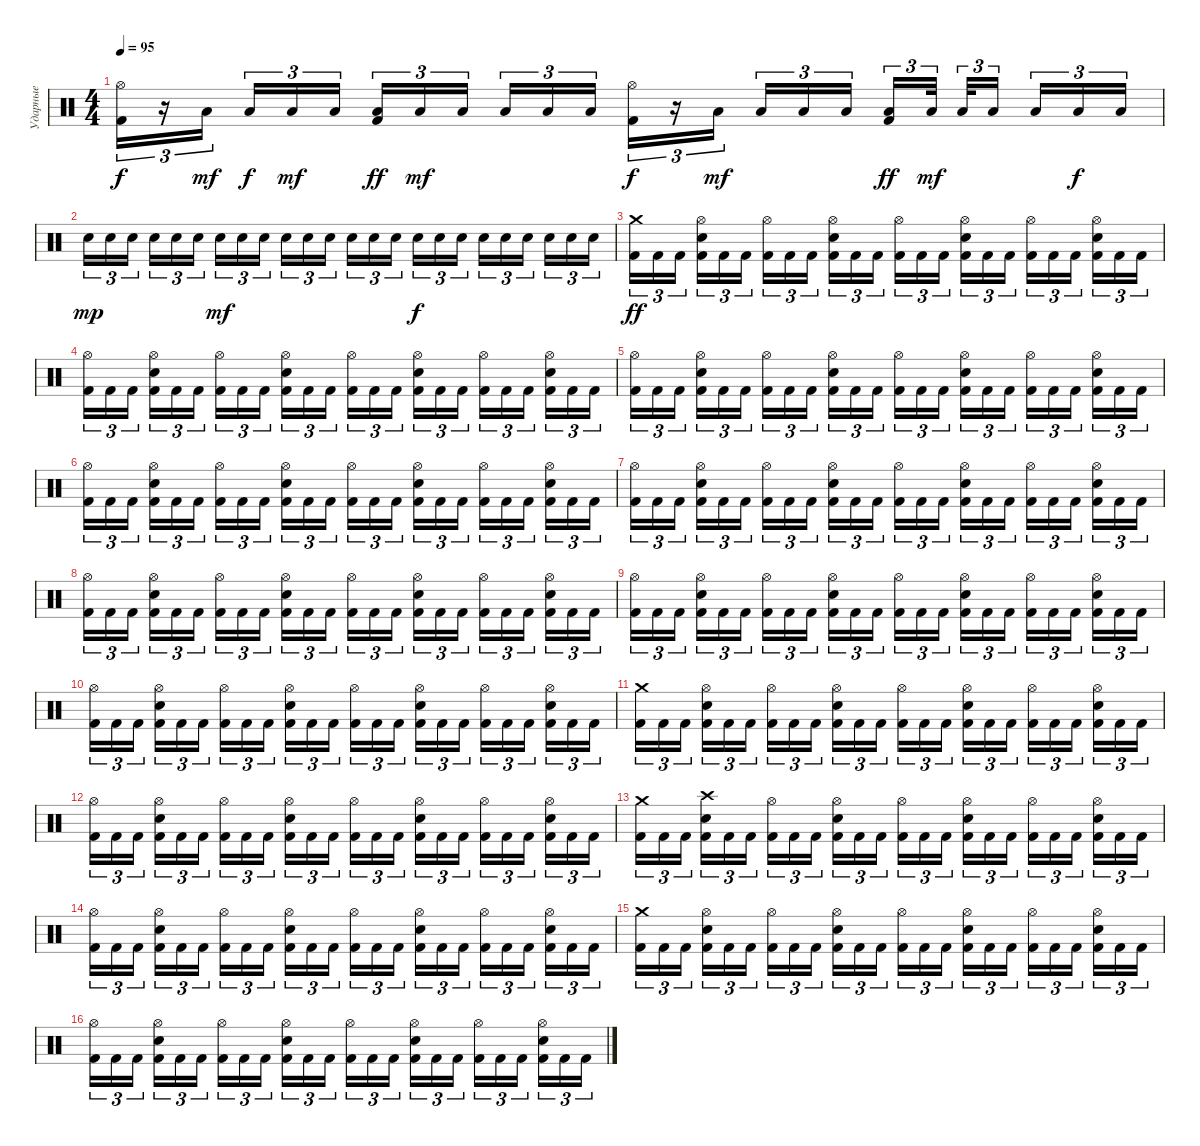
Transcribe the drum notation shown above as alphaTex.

\track ("Ударные" "Ударные") {instrument percussion}
\staff
\articulation defaults
\ts (4 4)
\tempo 95
\clef neutral
\ks c
("Hi-Hat (open)" "Kick (hit) 2").16{tu (3 2) dy f} r.16{tu (3 2)} "Low Floor Tom (hit)".16{tu (3 2) dy mf beam splitsecondary} "Low Floor Tom (hit)".16{tu (3 2) dy f} "Low Floor Tom (hit)".16{tu (3 2) dy mf} "Low Floor Tom (hit)".16{tu (3 2)} ("Kick (hit) 2" "Low Floor Tom (hit)").16{tu (3 2) dy ff} "Low Floor Tom (hit)".16{tu (3 2) dy mf} "Low Floor Tom (hit)".16{tu (3 2) beam splitsecondary} "Low Floor Tom (hit)".16{tu (3 2)} "Low Floor Tom (hit)".16{tu (3 2)} "Low Floor Tom (hit)".16{tu (3 2)} ("Hi-Hat (open)" "Kick (hit) 2").16{tu (3 2) dy f} r.16{tu (3 2)} "Low Floor Tom (hit)".16{tu (3 2) dy mf beam splitsecondary} "Low Floor Tom (hit)".16{tu (3 2)} "Low Floor Tom (hit)".16{tu (3 2)} "Low Floor Tom (hit)".16{tu (3 2)} ("Kick (hit) 2" "Low Floor Tom (hit)").16{tu (3 2) dy ff} "Low Floor Tom (hit)".32{tu (3 2) dy mf beam splitsecondary} "Low Floor Tom (hit)".32{tu (3 2)} "Low Floor Tom (hit)".16{tu (3 2) beam splitsecondary} "Low Floor Tom (hit)".16{tu (3 2)} "Low Floor Tom (hit)".16{tu (3 2) dy f} "Low Floor Tom (hit)".16{tu (3 2)} |
"Electric Snare (hit)".16{tu (3 2) dy mp} "Electric Snare (hit)".16{tu (3 2)} "Electric Snare (hit)".16{tu (3 2) beam splitsecondary} "Electric Snare (hit)".16{tu (3 2)} "Electric Snare (hit)".16{tu (3 2)} "Electric Snare (hit)".16{tu (3 2)} "Electric Snare (hit)".16{tu (3 2) dy mf} "Electric Snare (hit)".16{tu (3 2)} "Electric Snare (hit)".16{tu (3 2) beam splitsecondary} "Electric Snare (hit)".16{tu (3 2)} "Electric Snare (hit)".16{tu (3 2)} "Electric Snare (hit)".16{tu (3 2)} "Electric Snare (hit)".16{tu (3 2)} "Electric Snare (hit)".16{tu (3 2)} "Electric Snare (hit)".16{tu (3 2) beam splitsecondary} "Electric Snare (hit)".16{tu (3 2) dy f} "Electric Snare (hit)".16{tu (3 2)} "Electric Snare (hit)".16{tu (3 2)} "Electric Snare (hit)".16{tu (3 2)} "Electric Snare (hit)".16{tu (3 2)} "Electric Snare (hit)".16{tu (3 2) beam splitsecondary} "Electric Snare (hit)".16{tu (3 2)} "Electric Snare (hit)".16{tu (3 2)} "Electric Snare (hit)".16{tu (3 2)} |
("Crash medium (hit)" "Kick (hit) 2").16{tu (3 2) dy ff} "Kick (hit) 2".16{tu (3 2)} "Kick (hit) 2".16{tu (3 2) beam splitsecondary} ("Hi-Hat (open)" "Electric Snare (hit)" "Kick (hit) 2").16{tu (3 2)} "Kick (hit) 2".16{tu (3 2)} "Kick (hit) 2".16{tu (3 2)} ("Hi-Hat (open)" "Kick (hit) 2").16{tu (3 2)} "Kick (hit) 2".16{tu (3 2)} "Kick (hit) 2".16{tu (3 2) beam splitsecondary} ("Hi-Hat (open)" "Electric Snare (hit)" "Kick (hit) 2").16{tu (3 2)} "Kick (hit) 2".16{tu (3 2)} "Kick (hit) 2".16{tu (3 2)} ("Hi-Hat (open)" "Kick (hit) 2").16{tu (3 2)} "Kick (hit) 2".16{tu (3 2)} "Kick (hit) 2".16{tu (3 2) beam splitsecondary} ("Hi-Hat (open)" "Electric Snare (hit)" "Kick (hit) 2").16{tu (3 2)} "Kick (hit) 2".16{tu (3 2)} "Kick (hit) 2".16{tu (3 2)} ("Hi-Hat (open)" "Kick (hit) 2").16{tu (3 2)} "Kick (hit) 2".16{tu (3 2)} "Kick (hit) 2".16{tu (3 2) beam splitsecondary} ("Hi-Hat (open)" "Electric Snare (hit)" "Kick (hit) 2").16{tu (3 2)} "Kick (hit) 2".16{tu (3 2)} "Kick (hit) 2".16{tu (3 2)} |
("Hi-Hat (open)" "Kick (hit) 2").16{tu (3 2)} "Kick (hit) 2".16{tu (3 2)} "Kick (hit) 2".16{tu (3 2) beam splitsecondary} ("Hi-Hat (open)" "Electric Snare (hit)" "Kick (hit) 2").16{tu (3 2)} "Kick (hit) 2".16{tu (3 2)} "Kick (hit) 2".16{tu (3 2)} ("Hi-Hat (open)" "Kick (hit) 2").16{tu (3 2)} "Kick (hit) 2".16{tu (3 2)} "Kick (hit) 2".16{tu (3 2) beam splitsecondary} ("Hi-Hat (open)" "Electric Snare (hit)" "Kick (hit) 2").16{tu (3 2)} "Kick (hit) 2".16{tu (3 2)} "Kick (hit) 2".16{tu (3 2)} ("Hi-Hat (open)" "Kick (hit) 2").16{tu (3 2)} "Kick (hit) 2".16{tu (3 2)} "Kick (hit) 2".16{tu (3 2) beam splitsecondary} ("Hi-Hat (open)" "Electric Snare (hit)" "Kick (hit) 2").16{tu (3 2)} "Kick (hit) 2".16{tu (3 2)} "Kick (hit) 2".16{tu (3 2)} ("Hi-Hat (open)" "Kick (hit) 2").16{tu (3 2)} "Kick (hit) 2".16{tu (3 2)} "Kick (hit) 2".16{tu (3 2) beam splitsecondary} ("Hi-Hat (open)" "Electric Snare (hit)" "Kick (hit) 2").16{tu (3 2)} "Kick (hit) 2".16{tu (3 2)} "Kick (hit) 2".16{tu (3 2)} |
("Hi-Hat (open)" "Kick (hit) 2").16{tu (3 2)} "Kick (hit) 2".16{tu (3 2)} "Kick (hit) 2".16{tu (3 2) beam splitsecondary} ("Hi-Hat (open)" "Electric Snare (hit)" "Kick (hit) 2").16{tu (3 2)} "Kick (hit) 2".16{tu (3 2)} "Kick (hit) 2".16{tu (3 2)} ("Hi-Hat (open)" "Kick (hit) 2").16{tu (3 2)} "Kick (hit) 2".16{tu (3 2)} "Kick (hit) 2".16{tu (3 2) beam splitsecondary} ("Hi-Hat (open)" "Electric Snare (hit)" "Kick (hit) 2").16{tu (3 2)} "Kick (hit) 2".16{tu (3 2)} "Kick (hit) 2".16{tu (3 2)} ("Hi-Hat (open)" "Kick (hit) 2").16{tu (3 2)} "Kick (hit) 2".16{tu (3 2)} "Kick (hit) 2".16{tu (3 2) beam splitsecondary} ("Hi-Hat (open)" "Electric Snare (hit)" "Kick (hit) 2").16{tu (3 2)} "Kick (hit) 2".16{tu (3 2)} "Kick (hit) 2".16{tu (3 2)} ("Hi-Hat (open)" "Kick (hit) 2").16{tu (3 2)} "Kick (hit) 2".16{tu (3 2)} "Kick (hit) 2".16{tu (3 2) beam splitsecondary} ("Hi-Hat (open)" "Electric Snare (hit)" "Kick (hit) 2").16{tu (3 2)} "Kick (hit) 2".16{tu (3 2)} "Kick (hit) 2".16{tu (3 2)} |
("Hi-Hat (open)" "Kick (hit) 2").16{tu (3 2)} "Kick (hit) 2".16{tu (3 2)} "Kick (hit) 2".16{tu (3 2) beam splitsecondary} ("Hi-Hat (open)" "Electric Snare (hit)" "Kick (hit) 2").16{tu (3 2)} "Kick (hit) 2".16{tu (3 2)} "Kick (hit) 2".16{tu (3 2)} ("Hi-Hat (open)" "Kick (hit) 2").16{tu (3 2)} "Kick (hit) 2".16{tu (3 2)} "Kick (hit) 2".16{tu (3 2) beam splitsecondary} ("Hi-Hat (open)" "Electric Snare (hit)" "Kick (hit) 2").16{tu (3 2)} "Kick (hit) 2".16{tu (3 2)} "Kick (hit) 2".16{tu (3 2)} ("Hi-Hat (open)" "Kick (hit) 2").16{tu (3 2)} "Kick (hit) 2".16{tu (3 2)} "Kick (hit) 2".16{tu (3 2) beam splitsecondary} ("Hi-Hat (open)" "Electric Snare (hit)" "Kick (hit) 2").16{tu (3 2)} "Kick (hit) 2".16{tu (3 2)} "Kick (hit) 2".16{tu (3 2)} ("Hi-Hat (open)" "Kick (hit) 2").16{tu (3 2)} "Kick (hit) 2".16{tu (3 2)} "Kick (hit) 2".16{tu (3 2) beam splitsecondary} ("Hi-Hat (open)" "Electric Snare (hit)" "Kick (hit) 2").16{tu (3 2)} "Kick (hit) 2".16{tu (3 2)} "Kick (hit) 2".16{tu (3 2)} |
("Hi-Hat (open)" "Kick (hit) 2").16{tu (3 2)} "Kick (hit) 2".16{tu (3 2)} "Kick (hit) 2".16{tu (3 2) beam splitsecondary} ("Hi-Hat (open)" "Electric Snare (hit)" "Kick (hit) 2").16{tu (3 2)} "Kick (hit) 2".16{tu (3 2)} "Kick (hit) 2".16{tu (3 2)} ("Hi-Hat (open)" "Kick (hit) 2").16{tu (3 2)} "Kick (hit) 2".16{tu (3 2)} "Kick (hit) 2".16{tu (3 2) beam splitsecondary} ("Hi-Hat (open)" "Electric Snare (hit)" "Kick (hit) 2").16{tu (3 2)} "Kick (hit) 2".16{tu (3 2)} "Kick (hit) 2".16{tu (3 2)} ("Hi-Hat (open)" "Kick (hit) 2").16{tu (3 2)} "Kick (hit) 2".16{tu (3 2)} "Kick (hit) 2".16{tu (3 2) beam splitsecondary} ("Hi-Hat (open)" "Electric Snare (hit)" "Kick (hit) 2").16{tu (3 2)} "Kick (hit) 2".16{tu (3 2)} "Kick (hit) 2".16{tu (3 2)} ("Hi-Hat (open)" "Kick (hit) 2").16{tu (3 2)} "Kick (hit) 2".16{tu (3 2)} "Kick (hit) 2".16{tu (3 2) beam splitsecondary} ("Hi-Hat (open)" "Electric Snare (hit)" "Kick (hit) 2").16{tu (3 2)} "Kick (hit) 2".16{tu (3 2)} "Kick (hit) 2".16{tu (3 2)} |
("Hi-Hat (open)" "Kick (hit) 2").16{tu (3 2)} "Kick (hit) 2".16{tu (3 2)} "Kick (hit) 2".16{tu (3 2) beam splitsecondary} ("Hi-Hat (open)" "Electric Snare (hit)" "Kick (hit) 2").16{tu (3 2)} "Kick (hit) 2".16{tu (3 2)} "Kick (hit) 2".16{tu (3 2)} ("Hi-Hat (open)" "Kick (hit) 2").16{tu (3 2)} "Kick (hit) 2".16{tu (3 2)} "Kick (hit) 2".16{tu (3 2) beam splitsecondary} ("Hi-Hat (open)" "Electric Snare (hit)" "Kick (hit) 2").16{tu (3 2)} "Kick (hit) 2".16{tu (3 2)} "Kick (hit) 2".16{tu (3 2)} ("Hi-Hat (open)" "Kick (hit) 2").16{tu (3 2)} "Kick (hit) 2".16{tu (3 2)} "Kick (hit) 2".16{tu (3 2) beam splitsecondary} ("Hi-Hat (open)" "Electric Snare (hit)" "Kick (hit) 2").16{tu (3 2)} "Kick (hit) 2".16{tu (3 2)} "Kick (hit) 2".16{tu (3 2)} ("Hi-Hat (open)" "Kick (hit) 2").16{tu (3 2)} "Kick (hit) 2".16{tu (3 2)} "Kick (hit) 2".16{tu (3 2) beam splitsecondary} ("Hi-Hat (open)" "Electric Snare (hit)" "Kick (hit) 2").16{tu (3 2)} "Kick (hit) 2".16{tu (3 2)} "Kick (hit) 2".16{tu (3 2)} |
("Hi-Hat (open)" "Kick (hit) 2").16{tu (3 2)} "Kick (hit) 2".16{tu (3 2)} "Kick (hit) 2".16{tu (3 2) beam splitsecondary} ("Hi-Hat (open)" "Electric Snare (hit)" "Kick (hit) 2").16{tu (3 2)} "Kick (hit) 2".16{tu (3 2)} "Kick (hit) 2".16{tu (3 2)} ("Hi-Hat (open)" "Kick (hit) 2").16{tu (3 2)} "Kick (hit) 2".16{tu (3 2)} "Kick (hit) 2".16{tu (3 2) beam splitsecondary} ("Hi-Hat (open)" "Electric Snare (hit)" "Kick (hit) 2").16{tu (3 2)} "Kick (hit) 2".16{tu (3 2)} "Kick (hit) 2".16{tu (3 2)} ("Hi-Hat (open)" "Kick (hit) 2").16{tu (3 2)} "Kick (hit) 2".16{tu (3 2)} "Kick (hit) 2".16{tu (3 2) beam splitsecondary} ("Hi-Hat (open)" "Electric Snare (hit)" "Kick (hit) 2").16{tu (3 2)} "Kick (hit) 2".16{tu (3 2)} "Kick (hit) 2".16{tu (3 2)} ("Hi-Hat (open)" "Kick (hit) 2").16{tu (3 2)} "Kick (hit) 2".16{tu (3 2)} "Kick (hit) 2".16{tu (3 2) beam splitsecondary} ("Hi-Hat (open)" "Electric Snare (hit)" "Kick (hit) 2").16{tu (3 2)} "Kick (hit) 2".16{tu (3 2)} "Kick (hit) 2".16{tu (3 2)} |
("Hi-Hat (open)" "Kick (hit) 2").16{tu (3 2)} "Kick (hit) 2".16{tu (3 2)} "Kick (hit) 2".16{tu (3 2) beam splitsecondary} ("Hi-Hat (open)" "Electric Snare (hit)" "Kick (hit) 2").16{tu (3 2)} "Kick (hit) 2".16{tu (3 2)} "Kick (hit) 2".16{tu (3 2)} ("Hi-Hat (open)" "Kick (hit) 2").16{tu (3 2)} "Kick (hit) 2".16{tu (3 2)} "Kick (hit) 2".16{tu (3 2) beam splitsecondary} ("Hi-Hat (open)" "Electric Snare (hit)" "Kick (hit) 2").16{tu (3 2)} "Kick (hit) 2".16{tu (3 2)} "Kick (hit) 2".16{tu (3 2)} ("Hi-Hat (open)" "Kick (hit) 2").16{tu (3 2)} "Kick (hit) 2".16{tu (3 2)} "Kick (hit) 2".16{tu (3 2) beam splitsecondary} ("Hi-Hat (open)" "Electric Snare (hit)" "Kick (hit) 2").16{tu (3 2)} "Kick (hit) 2".16{tu (3 2)} "Kick (hit) 2".16{tu (3 2)} ("Hi-Hat (open)" "Kick (hit) 2").16{tu (3 2)} "Kick (hit) 2".16{tu (3 2)} "Kick (hit) 2".16{tu (3 2) beam splitsecondary} ("Hi-Hat (open)" "Electric Snare (hit)" "Kick (hit) 2").16{tu (3 2)} "Kick (hit) 2".16{tu (3 2)} "Kick (hit) 2".16{tu (3 2)} |
("Crash medium (hit)" "Kick (hit) 2").16{tu (3 2)} "Kick (hit) 2".16{tu (3 2)} "Kick (hit) 2".16{tu (3 2) beam splitsecondary} ("Hi-Hat (open)" "Electric Snare (hit)" "Kick (hit) 2").16{tu (3 2)} "Kick (hit) 2".16{tu (3 2)} "Kick (hit) 2".16{tu (3 2)} ("Hi-Hat (open)" "Kick (hit) 2").16{tu (3 2)} "Kick (hit) 2".16{tu (3 2)} "Kick (hit) 2".16{tu (3 2) beam splitsecondary} ("Hi-Hat (open)" "Electric Snare (hit)" "Kick (hit) 2").16{tu (3 2)} "Kick (hit) 2".16{tu (3 2)} "Kick (hit) 2".16{tu (3 2)} ("Hi-Hat (open)" "Kick (hit) 2").16{tu (3 2)} "Kick (hit) 2".16{tu (3 2)} "Kick (hit) 2".16{tu (3 2) beam splitsecondary} ("Hi-Hat (open)" "Electric Snare (hit)" "Kick (hit) 2").16{tu (3 2)} "Kick (hit) 2".16{tu (3 2)} "Kick (hit) 2".16{tu (3 2)} ("Hi-Hat (open)" "Kick (hit) 2").16{tu (3 2)} "Kick (hit) 2".16{tu (3 2)} "Kick (hit) 2".16{tu (3 2) beam splitsecondary} ("Hi-Hat (open)" "Electric Snare (hit)" "Kick (hit) 2").16{tu (3 2)} "Kick (hit) 2".16{tu (3 2)} "Kick (hit) 2".16{tu (3 2)} |
("Hi-Hat (open)" "Kick (hit) 2").16{tu (3 2)} "Kick (hit) 2".16{tu (3 2)} "Kick (hit) 2".16{tu (3 2) beam splitsecondary} ("Hi-Hat (open)" "Electric Snare (hit)" "Kick (hit) 2").16{tu (3 2)} "Kick (hit) 2".16{tu (3 2)} "Kick (hit) 2".16{tu (3 2)} ("Hi-Hat (open)" "Kick (hit) 2").16{tu (3 2)} "Kick (hit) 2".16{tu (3 2)} "Kick (hit) 2".16{tu (3 2) beam splitsecondary} ("Hi-Hat (open)" "Electric Snare (hit)" "Kick (hit) 2").16{tu (3 2)} "Kick (hit) 2".16{tu (3 2)} "Kick (hit) 2".16{tu (3 2)} ("Hi-Hat (open)" "Kick (hit) 2").16{tu (3 2)} "Kick (hit) 2".16{tu (3 2)} "Kick (hit) 2".16{tu (3 2) beam splitsecondary} ("Hi-Hat (open)" "Electric Snare (hit)" "Kick (hit) 2").16{tu (3 2)} "Kick (hit) 2".16{tu (3 2)} "Kick (hit) 2".16{tu (3 2)} ("Hi-Hat (open)" "Kick (hit) 2").16{tu (3 2)} "Kick (hit) 2".16{tu (3 2)} "Kick (hit) 2".16{tu (3 2) beam splitsecondary} ("Hi-Hat (open)" "Electric Snare (hit)" "Kick (hit) 2").16{tu (3 2)} "Kick (hit) 2".16{tu (3 2)} "Kick (hit) 2".16{tu (3 2)} |
("Crash medium (hit)" "Kick (hit) 2").16{tu (3 2)} "Kick (hit) 2".16{tu (3 2)} "Kick (hit) 2".16{tu (3 2) beam splitsecondary} ("Crash high (hit)" "Electric Snare (hit)" "Kick (hit) 2").16{tu (3 2)} "Kick (hit) 2".16{tu (3 2)} "Kick (hit) 2".16{tu (3 2)} ("Hi-Hat (open)" "Kick (hit) 2").16{tu (3 2)} "Kick (hit) 2".16{tu (3 2)} "Kick (hit) 2".16{tu (3 2) beam splitsecondary} ("Hi-Hat (open)" "Electric Snare (hit)" "Kick (hit) 2").16{tu (3 2)} "Kick (hit) 2".16{tu (3 2)} "Kick (hit) 2".16{tu (3 2)} ("Hi-Hat (open)" "Kick (hit) 2").16{tu (3 2)} "Kick (hit) 2".16{tu (3 2)} "Kick (hit) 2".16{tu (3 2) beam splitsecondary} ("Hi-Hat (open)" "Electric Snare (hit)" "Kick (hit) 2").16{tu (3 2)} "Kick (hit) 2".16{tu (3 2)} "Kick (hit) 2".16{tu (3 2)} ("Hi-Hat (open)" "Kick (hit) 2").16{tu (3 2)} "Kick (hit) 2".16{tu (3 2)} "Kick (hit) 2".16{tu (3 2) beam splitsecondary} ("Hi-Hat (open)" "Electric Snare (hit)" "Kick (hit) 2").16{tu (3 2)} "Kick (hit) 2".16{tu (3 2)} "Kick (hit) 2".16{tu (3 2)} |
("Hi-Hat (open)" "Kick (hit) 2").16{tu (3 2)} "Kick (hit) 2".16{tu (3 2)} "Kick (hit) 2".16{tu (3 2) beam splitsecondary} ("Hi-Hat (open)" "Electric Snare (hit)" "Kick (hit) 2").16{tu (3 2)} "Kick (hit) 2".16{tu (3 2)} "Kick (hit) 2".16{tu (3 2)} ("Hi-Hat (open)" "Kick (hit) 2").16{tu (3 2)} "Kick (hit) 2".16{tu (3 2)} "Kick (hit) 2".16{tu (3 2) beam splitsecondary} ("Hi-Hat (open)" "Electric Snare (hit)" "Kick (hit) 2").16{tu (3 2)} "Kick (hit) 2".16{tu (3 2)} "Kick (hit) 2".16{tu (3 2)} ("Hi-Hat (open)" "Kick (hit) 2").16{tu (3 2)} "Kick (hit) 2".16{tu (3 2)} "Kick (hit) 2".16{tu (3 2) beam splitsecondary} ("Hi-Hat (open)" "Electric Snare (hit)" "Kick (hit) 2").16{tu (3 2)} "Kick (hit) 2".16{tu (3 2)} "Kick (hit) 2".16{tu (3 2)} ("Hi-Hat (open)" "Kick (hit) 2").16{tu (3 2)} "Kick (hit) 2".16{tu (3 2)} "Kick (hit) 2".16{tu (3 2) beam splitsecondary} ("Hi-Hat (open)" "Electric Snare (hit)" "Kick (hit) 2").16{tu (3 2)} "Kick (hit) 2".16{tu (3 2)} "Kick (hit) 2".16{tu (3 2)} |
("Crash medium (hit)" "Kick (hit) 2").16{tu (3 2)} "Kick (hit) 2".16{tu (3 2)} "Kick (hit) 2".16{tu (3 2) beam splitsecondary} ("Hi-Hat (open)" "Electric Snare (hit)" "Kick (hit) 2").16{tu (3 2)} "Kick (hit) 2".16{tu (3 2)} "Kick (hit) 2".16{tu (3 2)} ("Hi-Hat (open)" "Kick (hit) 2").16{tu (3 2)} "Kick (hit) 2".16{tu (3 2)} "Kick (hit) 2".16{tu (3 2) beam splitsecondary} ("Hi-Hat (open)" "Electric Snare (hit)" "Kick (hit) 2").16{tu (3 2)} "Kick (hit) 2".16{tu (3 2)} "Kick (hit) 2".16{tu (3 2)} ("Hi-Hat (open)" "Kick (hit) 2").16{tu (3 2)} "Kick (hit) 2".16{tu (3 2)} "Kick (hit) 2".16{tu (3 2) beam splitsecondary} ("Hi-Hat (open)" "Electric Snare (hit)" "Kick (hit) 2").16{tu (3 2)} "Kick (hit) 2".16{tu (3 2)} "Kick (hit) 2".16{tu (3 2)} ("Hi-Hat (open)" "Kick (hit) 2").16{tu (3 2)} "Kick (hit) 2".16{tu (3 2)} "Kick (hit) 2".16{tu (3 2) beam splitsecondary} ("Hi-Hat (open)" "Electric Snare (hit)" "Kick (hit) 2").16{tu (3 2)} "Kick (hit) 2".16{tu (3 2)} "Kick (hit) 2".16{tu (3 2)} |
("Hi-Hat (open)" "Kick (hit) 2").16{tu (3 2)} "Kick (hit) 2".16{tu (3 2)} "Kick (hit) 2".16{tu (3 2) beam splitsecondary} ("Hi-Hat (open)" "Electric Snare (hit)" "Kick (hit) 2").16{tu (3 2)} "Kick (hit) 2".16{tu (3 2)} "Kick (hit) 2".16{tu (3 2)} ("Hi-Hat (open)" "Kick (hit) 2").16{tu (3 2)} "Kick (hit) 2".16{tu (3 2)} "Kick (hit) 2".16{tu (3 2) beam splitsecondary} ("Hi-Hat (open)" "Electric Snare (hit)" "Kick (hit) 2").16{tu (3 2)} "Kick (hit) 2".16{tu (3 2)} "Kick (hit) 2".16{tu (3 2)} ("Hi-Hat (open)" "Kick (hit) 2").16{tu (3 2)} "Kick (hit) 2".16{tu (3 2)} "Kick (hit) 2".16{tu (3 2) beam splitsecondary} ("Hi-Hat (open)" "Electric Snare (hit)" "Kick (hit) 2").16{tu (3 2)} "Kick (hit) 2".16{tu (3 2)} "Kick (hit) 2".16{tu (3 2)} ("Hi-Hat (open)" "Kick (hit) 2").16{tu (3 2)} "Kick (hit) 2".16{tu (3 2)} "Kick (hit) 2".16{tu (3 2) beam splitsecondary} ("Hi-Hat (open)" "Electric Snare (hit)" "Kick (hit) 2").16{tu (3 2)} "Kick (hit) 2".16{tu (3 2)} "Kick (hit) 2".16{tu (3 2)}
